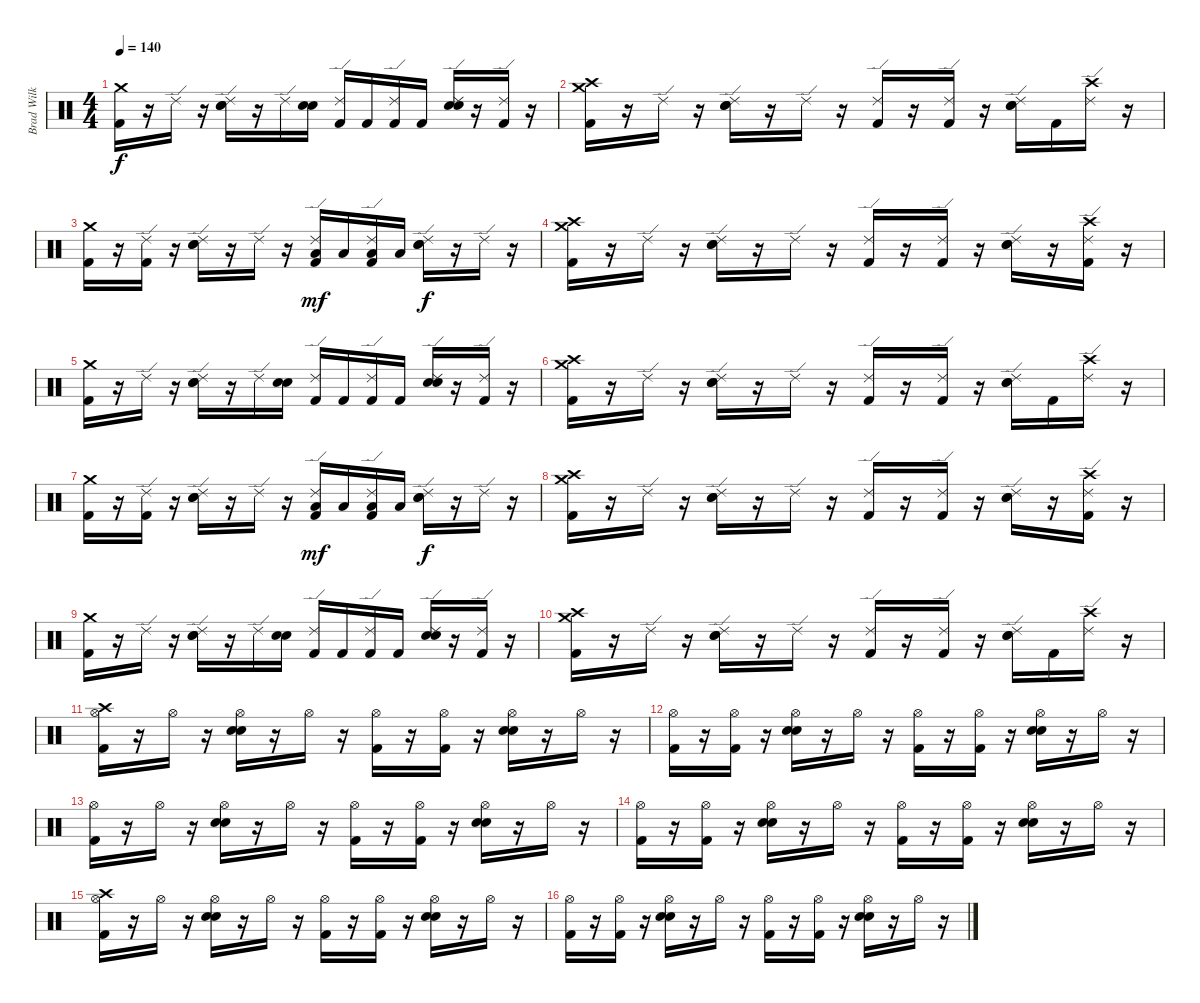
\track ("Brad Wilk" "Brad Wilk") {instrument percussion}
\staff {score}
\articulation defaults
\ts (4 4)
\tempo 140
\clef neutral
\ks c
("Crash medium (hit)" "Kick (hit) 2").16{dy f} r.16 "Ride (edge) 2".16 r.16 ("Ride (edge) 2" "Electric Snare (hit)" "Snare (hit) 2").16 r.16 "Ride (edge) 2".16 ("Electric Snare (hit)" "Snare (hit) 2").16 ("Ride (edge) 2" "Kick (hit) 2").16 "Kick (hit) 2".16 ("Ride (edge) 2" "Kick (hit) 2").16 "Kick (hit) 2".16 ("Ride (edge) 2" "Electric Snare (hit)" "Snare (hit) 2").16 r.16 ("Ride (edge) 2" "Kick (hit) 2").16 r.16 |
("Crash medium (hit)" "Crash high (hit)" "Kick (hit) 2").16 r.16 "Ride (edge) 2".16 r.16 ("Ride (edge) 2" "Electric Snare (hit)" "Snare (hit) 2").16 r.16 "Ride (edge) 2".16 r.16 ("Ride (edge) 2" "Kick (hit) 2").16 r.16 ("Ride (edge) 2" "Kick (hit) 2").16 r.16 ("Ride (edge) 2" "Electric Snare (hit)" "Snare (hit) 2").16 "Kick (hit) 2".16 ("Ride (edge) 2" "Crash high (hit)").16 r.16 |
("Crash medium (hit)" "Kick (hit) 2").16 r.16 ("Ride (edge) 2" "Kick (hit) 2").16 r.16 ("Ride (edge) 2" "Electric Snare (hit)" "Snare (hit) 2").16 r.16 "Ride (edge) 2".16 r.16 ("Ride (edge) 2" "Low Tom (hit)" "Kick (hit) 2").16{dy mf} "Low Tom (hit)".16 ("Ride (edge) 2" "Low Tom (hit)" "Kick (hit) 2").16 "Low Tom (hit)".16 ("Ride (edge) 2" "Electric Snare (hit)" "Snare (hit) 2").16{dy f} r.16 "Ride (edge) 2".16 r.16 |
("Crash medium (hit)" "Crash high (hit)" "Kick (hit) 2").16 r.16 "Ride (edge) 2".16 r.16 ("Ride (edge) 2" "Electric Snare (hit)" "Snare (hit) 2").16 r.16 "Ride (edge) 2".16 r.16 ("Ride (edge) 2" "Kick (hit) 2").16 r.16 ("Ride (edge) 2" "Kick (hit) 2").16 r.16 ("Ride (edge) 2" "Electric Snare (hit)" "Snare (hit) 2").16 r.16 ("Ride (edge) 2" "Crash high (hit)" "Kick (hit) 2").16 r.16 |
("Crash medium (hit)" "Kick (hit) 2").16 r.16 "Ride (edge) 2".16 r.16 ("Ride (edge) 2" "Electric Snare (hit)" "Snare (hit) 2").16 r.16 "Ride (edge) 2".16 ("Electric Snare (hit)" "Snare (hit) 2").16 ("Ride (edge) 2" "Kick (hit) 2").16 "Kick (hit) 2".16 ("Ride (edge) 2" "Kick (hit) 2").16 "Kick (hit) 2".16 ("Ride (edge) 2" "Electric Snare (hit)" "Snare (hit) 2").16 r.16 ("Ride (edge) 2" "Kick (hit) 2").16 r.16 |
("Crash medium (hit)" "Crash high (hit)" "Kick (hit) 2").16 r.16 "Ride (edge) 2".16 r.16 ("Ride (edge) 2" "Electric Snare (hit)" "Snare (hit) 2").16 r.16 "Ride (edge) 2".16 r.16 ("Ride (edge) 2" "Kick (hit) 2").16 r.16 ("Ride (edge) 2" "Kick (hit) 2").16 r.16 ("Ride (edge) 2" "Electric Snare (hit)" "Snare (hit) 2").16 "Kick (hit) 2".16 ("Ride (edge) 2" "Crash high (hit)").16 r.16 |
("Crash medium (hit)" "Kick (hit) 2").16 r.16 ("Ride (edge) 2" "Kick (hit) 2").16 r.16 ("Ride (edge) 2" "Electric Snare (hit)" "Snare (hit) 2").16 r.16 "Ride (edge) 2".16 r.16 ("Ride (edge) 2" "Low Tom (hit)" "Kick (hit) 2").16{dy mf} "Low Tom (hit)".16 ("Ride (edge) 2" "Low Tom (hit)" "Kick (hit) 2").16 "Low Tom (hit)".16 ("Ride (edge) 2" "Electric Snare (hit)" "Snare (hit) 2").16{dy f} r.16 "Ride (edge) 2".16 r.16 |
("Crash medium (hit)" "Crash high (hit)" "Kick (hit) 2").16 r.16 "Ride (edge) 2".16 r.16 ("Ride (edge) 2" "Electric Snare (hit)" "Snare (hit) 2").16 r.16 "Ride (edge) 2".16 r.16 ("Ride (edge) 2" "Kick (hit) 2").16 r.16 ("Ride (edge) 2" "Kick (hit) 2").16 r.16 ("Ride (edge) 2" "Electric Snare (hit)" "Snare (hit) 2").16 r.16 ("Ride (edge) 2" "Crash high (hit)" "Kick (hit) 2").16 r.16 |
("Crash medium (hit)" "Kick (hit) 2").16 r.16 "Ride (edge) 2".16 r.16 ("Ride (edge) 2" "Electric Snare (hit)" "Snare (hit) 2").16 r.16 "Ride (edge) 2".16 ("Electric Snare (hit)" "Snare (hit) 2").16 ("Ride (edge) 2" "Kick (hit) 2").16 "Kick (hit) 2".16 ("Ride (edge) 2" "Kick (hit) 2").16 "Kick (hit) 2".16 ("Ride (edge) 2" "Electric Snare (hit)" "Snare (hit) 2").16 r.16 ("Ride (edge) 2" "Kick (hit) 2").16 r.16 |
("Crash medium (hit)" "Crash high (hit)" "Kick (hit) 2").16 r.16 "Ride (edge) 2".16 r.16 ("Ride (edge) 2" "Electric Snare (hit)" "Snare (hit) 2").16 r.16 "Ride (edge) 2".16 r.16 ("Ride (edge) 2" "Kick (hit) 2").16 r.16 ("Ride (edge) 2" "Kick (hit) 2").16 r.16 ("Ride (edge) 2" "Electric Snare (hit)" "Snare (hit) 2").16 "Kick (hit) 2".16 ("Ride (edge) 2" "Crash high (hit)").16 r.16 |
("Hi-Hat (open)" "Crash high (hit)" "Kick (hit) 2").16 r.16 "Hi-Hat (open)".16 r.16 ("Hi-Hat (open)" "Electric Snare (hit)" "Snare (hit) 2").16 r.16 "Hi-Hat (open)".16 r.16 ("Hi-Hat (open)" "Kick (hit) 2").16 r.16 ("Hi-Hat (open)" "Kick (hit) 2").16 r.16 ("Hi-Hat (open)" "Electric Snare (hit)" "Snare (hit) 2").16 r.16 "Hi-Hat (open)".16 r.16 |
("Hi-Hat (open)" "Kick (hit) 2").16 r.16 ("Hi-Hat (open)" "Kick (hit) 2").16 r.16 ("Hi-Hat (open)" "Electric Snare (hit)" "Snare (hit) 2").16 r.16 "Hi-Hat (open)".16 r.16 ("Hi-Hat (open)" "Kick (hit) 2").16 r.16 ("Hi-Hat (open)" "Kick (hit) 2").16 r.16 ("Hi-Hat (open)" "Electric Snare (hit)" "Snare (hit) 2").16 r.16 "Hi-Hat (open)".16 r.16 |
("Hi-Hat (open)" "Kick (hit) 2").16 r.16 "Hi-Hat (open)".16 r.16 ("Hi-Hat (open)" "Electric Snare (hit)" "Snare (hit) 2").16 r.16 "Hi-Hat (open)".16 r.16 ("Hi-Hat (open)" "Kick (hit) 2").16 r.16 ("Hi-Hat (open)" "Kick (hit) 2").16 r.16 ("Hi-Hat (open)" "Electric Snare (hit)" "Snare (hit) 2").16 r.16 "Hi-Hat (open)".16 r.16 |
("Hi-Hat (open)" "Kick (hit) 2").16 r.16 ("Hi-Hat (open)" "Kick (hit) 2").16 r.16 ("Hi-Hat (open)" "Electric Snare (hit)" "Snare (hit) 2").16 r.16 "Hi-Hat (open)".16 r.16 ("Hi-Hat (open)" "Kick (hit) 2").16 r.16 ("Hi-Hat (open)" "Kick (hit) 2").16 r.16 ("Hi-Hat (open)" "Electric Snare (hit)" "Snare (hit) 2").16 r.16 "Hi-Hat (open)".16 r.16 |
("Hi-Hat (open)" "Crash high (hit)" "Kick (hit) 2").16 r.16 "Hi-Hat (open)".16 r.16 ("Hi-Hat (open)" "Electric Snare (hit)" "Snare (hit) 2").16 r.16 "Hi-Hat (open)".16 r.16 ("Hi-Hat (open)" "Kick (hit) 2").16 r.16 ("Hi-Hat (open)" "Kick (hit) 2").16 r.16 ("Hi-Hat (open)" "Electric Snare (hit)" "Snare (hit) 2").16 r.16 "Hi-Hat (open)".16 r.16 |
("Hi-Hat (open)" "Kick (hit) 2").16 r.16 ("Hi-Hat (open)" "Kick (hit) 2").16 r.16 ("Hi-Hat (open)" "Electric Snare (hit)" "Snare (hit) 2").16 r.16 "Hi-Hat (open)".16 r.16 ("Hi-Hat (open)" "Kick (hit) 2").16 r.16 ("Hi-Hat (open)" "Kick (hit) 2").16 r.16 ("Hi-Hat (open)" "Electric Snare (hit)" "Snare (hit) 2").16 r.16 "Hi-Hat (open)".16 r.16
